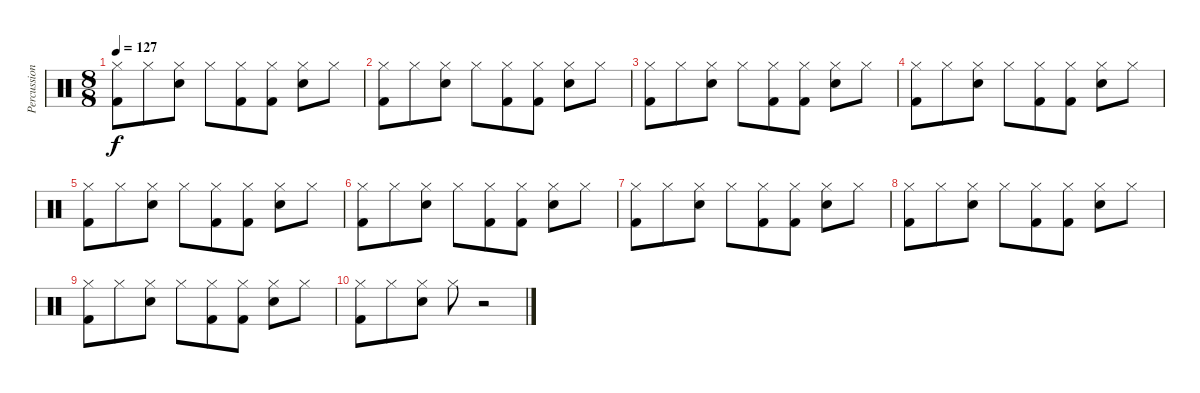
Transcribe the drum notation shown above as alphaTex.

\track ("Percussion" "Percussion") {instrument percussion}
\staff {score}
\articulation defaults
\ts (8 8)
\tempo 127
\clef neutral
\ks c
("Hi-Hat (closed)" "Kick (hit) 2").8{dy f} "Hi-Hat (closed)".8 ("Hi-Hat (closed)" "Snare (hit) 2").8 "Hi-Hat (closed)".8 ("Hi-Hat (closed)" "Kick (hit) 2").8 ("Hi-Hat (closed)" "Kick (hit) 2").8 ("Hi-Hat (closed)" "Snare (hit) 2").8 "Hi-Hat (closed)".8 |
("Hi-Hat (closed)" "Kick (hit) 2").8 "Hi-Hat (closed)".8 ("Hi-Hat (closed)" "Snare (hit) 2").8 "Hi-Hat (closed)".8 ("Hi-Hat (closed)" "Kick (hit) 2").8 ("Hi-Hat (closed)" "Kick (hit) 2").8 ("Hi-Hat (closed)" "Snare (hit) 2").8 "Hi-Hat (closed)".8 |
("Hi-Hat (closed)" "Kick (hit) 2").8 "Hi-Hat (closed)".8 ("Hi-Hat (closed)" "Snare (hit) 2").8 "Hi-Hat (closed)".8 ("Hi-Hat (closed)" "Kick (hit) 2").8 ("Hi-Hat (closed)" "Kick (hit) 2").8 ("Hi-Hat (closed)" "Snare (hit) 2").8 "Hi-Hat (closed)".8 |
("Hi-Hat (closed)" "Kick (hit) 2").8 "Hi-Hat (closed)".8 ("Hi-Hat (closed)" "Snare (hit) 2").8 "Hi-Hat (closed)".8 ("Hi-Hat (closed)" "Kick (hit) 2").8 ("Hi-Hat (closed)" "Kick (hit) 2").8 ("Hi-Hat (closed)" "Snare (hit) 2").8 "Hi-Hat (closed)".8 |
("Hi-Hat (closed)" "Kick (hit) 2").8 "Hi-Hat (closed)".8 ("Hi-Hat (closed)" "Snare (hit) 2").8 "Hi-Hat (closed)".8 ("Hi-Hat (closed)" "Kick (hit) 2").8 ("Hi-Hat (closed)" "Kick (hit) 2").8 ("Hi-Hat (closed)" "Snare (hit) 2").8 "Hi-Hat (closed)".8 |
("Hi-Hat (closed)" "Kick (hit) 2").8 "Hi-Hat (closed)".8 ("Hi-Hat (closed)" "Snare (hit) 2").8 "Hi-Hat (closed)".8 ("Hi-Hat (closed)" "Kick (hit) 2").8 ("Hi-Hat (closed)" "Kick (hit) 2").8 ("Hi-Hat (closed)" "Snare (hit) 2").8 "Hi-Hat (closed)".8 |
("Hi-Hat (closed)" "Kick (hit) 2").8 "Hi-Hat (closed)".8 ("Hi-Hat (closed)" "Snare (hit) 2").8 "Hi-Hat (closed)".8 ("Hi-Hat (closed)" "Kick (hit) 2").8 ("Hi-Hat (closed)" "Kick (hit) 2").8 ("Hi-Hat (closed)" "Snare (hit) 2").8 "Hi-Hat (closed)".8 |
("Hi-Hat (closed)" "Kick (hit) 2").8 "Hi-Hat (closed)".8 ("Hi-Hat (closed)" "Snare (hit) 2").8 "Hi-Hat (closed)".8 ("Hi-Hat (closed)" "Kick (hit) 2").8 ("Hi-Hat (closed)" "Kick (hit) 2").8 ("Hi-Hat (closed)" "Snare (hit) 2").8 "Hi-Hat (closed)".8 |
("Hi-Hat (closed)" "Kick (hit) 2").8 "Hi-Hat (closed)".8 ("Hi-Hat (closed)" "Snare (hit) 2").8 "Hi-Hat (closed)".8 ("Hi-Hat (closed)" "Kick (hit) 2").8 ("Hi-Hat (closed)" "Kick (hit) 2").8 ("Hi-Hat (closed)" "Snare (hit) 2").8 "Hi-Hat (closed)".8 |
("Hi-Hat (closed)" "Kick (hit) 2").8 "Hi-Hat (closed)".8 ("Hi-Hat (closed)" "Snare (hit) 2").8 "Hi-Hat (closed)".8 r.2
